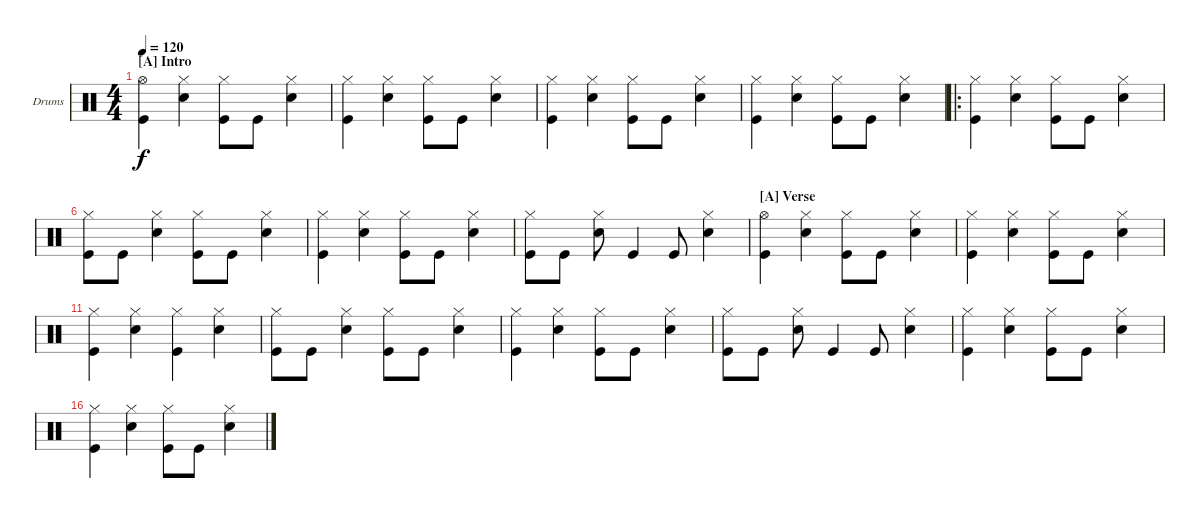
\bracketExtendMode nobrackets
\firstSystemTrackNameOrientation horizontal
\otherSystemsTrackNameOrientation horizontal
\defaultBarNumberDisplay FirstOfSystem
\track ("Drumkit" "Drums") {instrument percussion}
\staff {score}
\articulation defaults
\ts (4 4)
\section ("A" "Intro")
\scale
0.297071
\tempo 120
\accidentals auto
\clef neutral
\ottava regular
\simile none
\scale
0.309735
\ks c
("Kick (hit)" "Hi-Hat (open)").4{dy f} ("Hi-Hat (closed)" "Snare (hit) 2").4 ("Hi-Hat (closed)" "Kick (hit)").8 "Kick (hit)".8 ("Hi-Hat (closed)" "Snare (hit) 2").4 |
\scale
0.233273
\scale
0.230088 ("Hi-Hat (closed)" "Kick (hit)").4 ("Hi-Hat (closed)" "Snare (hit) 2").4 ("Hi-Hat (closed)" "Kick (hit)").8 "Kick (hit)".8 ("Hi-Hat (closed)" "Snare (hit) 2").4 |
\scale
0.235914
\scale
0.230088 ("Hi-Hat (closed)" "Kick (hit)").4 ("Hi-Hat (closed)" "Snare (hit) 2").4 ("Hi-Hat (closed)" "Kick (hit)").8 "Kick (hit)".8 ("Hi-Hat (closed)" "Snare (hit) 2").4 |
\scale
0.23431
\scale
0.230088 ("Hi-Hat (closed)" "Kick (hit)").4 ("Hi-Hat (closed)" "Snare (hit) 2").4 ("Hi-Hat (closed)" "Kick (hit)").8 "Kick (hit)".8 ("Hi-Hat (closed)" "Snare (hit) 2").4 |
\ro
\scale
0.25
\scale
0.240741 ("Kick (hit)" "Hi-Hat (closed)").4 ("Hi-Hat (closed)" "Snare (hit) 2").4 ("Hi-Hat (closed)" "Kick (hit)").8 "Kick (hit)".8 ("Hi-Hat (closed)" "Snare (hit) 2").4 |
\scale
0.25
\scale
0.240741 ("Hi-Hat (closed)" "Kick (hit)").8 "Kick (hit)".8 ("Hi-Hat (closed)" "Snare (hit) 2").4 ("Hi-Hat (closed)" "Kick (hit)").8 "Kick (hit)".8 ("Hi-Hat (closed)" "Snare (hit) 2").4 |
\scale
0.25
\scale
0.277778 ("Kick (hit)" "Hi-Hat (closed)").4 ("Hi-Hat (closed)" "Snare (hit) 2").4 ("Hi-Hat (closed)" "Kick (hit)").8 "Kick (hit)".8 ("Hi-Hat (closed)" "Snare (hit) 2").4 |
\scale
0.25
\scale
0.240741 ("Hi-Hat (closed)" "Kick (hit)").8 "Kick (hit)".8 ("Hi-Hat (closed)" "Snare (hit) 2").8 "Kick (hit)".4 "Kick (hit)".8 ("Hi-Hat (closed)" "Snare (hit) 2").4 |
\section ("A" "Verse")
\scale
0.25
\scale
0.245283 ("Kick (hit)" "Hi-Hat (open)").4 ("Hi-Hat (closed)" "Snare (hit) 2").4 ("Hi-Hat (closed)" "Kick (hit)").8 "Kick (hit)".8 ("Hi-Hat (closed)" "Snare (hit) 2").4 |
\scale
0.25
\scale
0.245283 ("Hi-Hat (closed)" "Kick (hit)").4 ("Hi-Hat (closed)" "Snare (hit) 2").4 ("Hi-Hat (closed)" "Kick (hit)").8 "Kick (hit)".8 ("Hi-Hat (closed)" "Snare (hit) 2").4 |
\scale
0.25
\scale
0.264151 ("Hi-Hat (closed)" "Kick (hit)").4 ("Hi-Hat (closed)" "Snare (hit) 2").4 ("Hi-Hat (closed)" "Kick (hit)").4 ("Hi-Hat (closed)" "Snare (hit) 2").4 |
\scale
0.25
\scale
0.245283 ("Hi-Hat (closed)" "Kick (hit)").8 "Kick (hit)".8 ("Hi-Hat (closed)" "Snare (hit) 2").4 ("Hi-Hat (closed)" "Kick (hit)").8 "Kick (hit)".8 ("Hi-Hat (closed)" "Snare (hit) 2").4 |
\scale
0.25
\scale
0.277778 ("Kick (hit)" "Hi-Hat (closed)").4 ("Hi-Hat (closed)" "Snare (hit) 2").4 ("Hi-Hat (closed)" "Kick (hit)").8 "Kick (hit)".8 ("Hi-Hat (closed)" "Snare (hit) 2").4 |
\scale
0.25
\scale
0.240741 ("Hi-Hat (closed)" "Kick (hit)").8 "Kick (hit)".8 ("Hi-Hat (closed)" "Snare (hit) 2").8 "Kick (hit)".4 "Kick (hit)".8 ("Hi-Hat (closed)" "Snare (hit) 2").4 |
\scale
0.25
\scale
0.240741 ("Hi-Hat (closed)" "Kick (hit)").4 ("Hi-Hat (closed)" "Snare (hit) 2").4 ("Hi-Hat (closed)" "Kick (hit)").8 "Kick (hit)".8 ("Hi-Hat (closed)" "Snare (hit) 2").4 |
\scale
0.25
\scale
0.240741 ("Hi-Hat (closed)" "Kick (hit)").4 ("Hi-Hat (closed)" "Snare (hit) 2").4 ("Hi-Hat (closed)" "Kick (hit)").8 "Kick (hit)".8 ("Hi-Hat (closed)" "Snare (hit) 2").4
